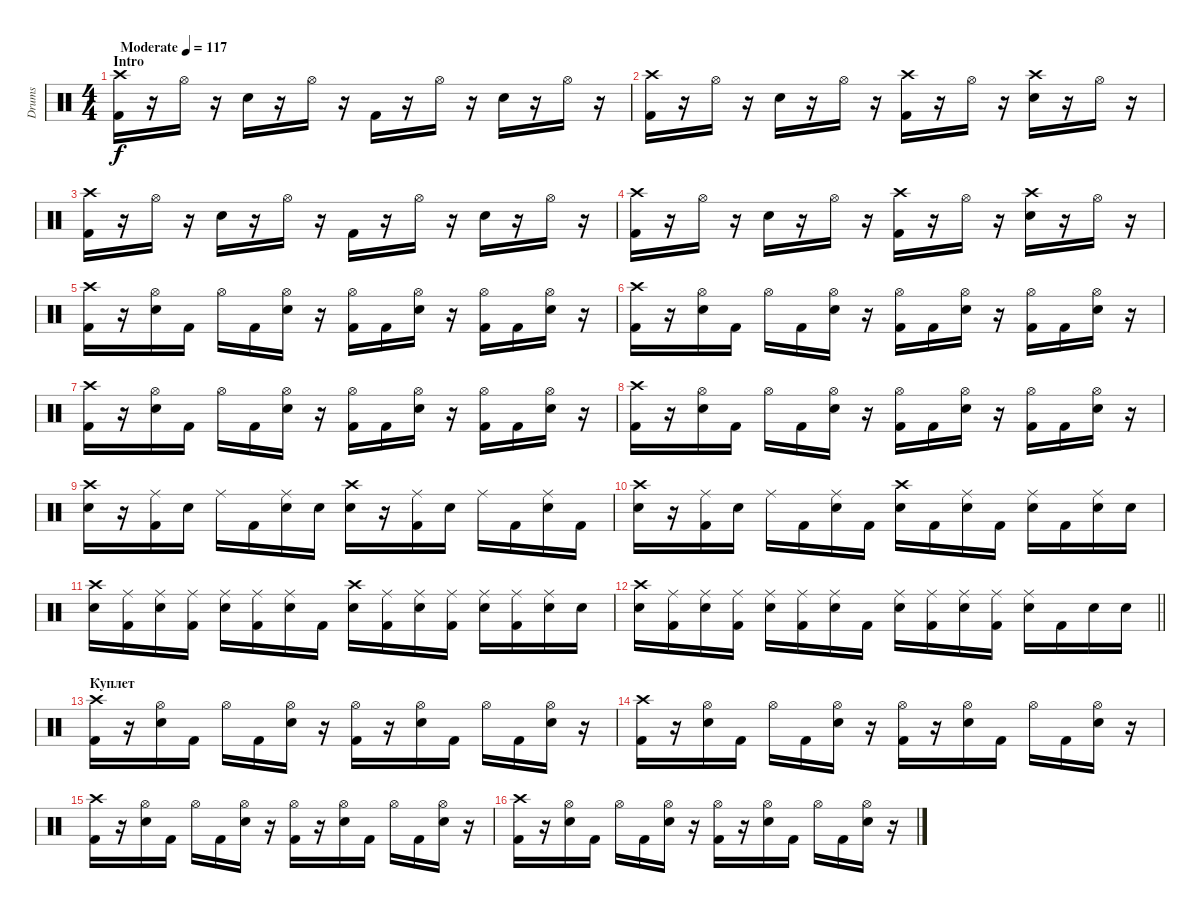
\track ("Drums" "Drums") {instrument percussion}
\staff {score}
\articulation defaults
\ts (4 4)
\section ("" "Intro")
\tempo (117 "Moderate")
\clef neutral
\ks c
("Kick (hit) 2" "Crash high (hit)").16{dy f} r.16 "Hi-Hat (open)".16 r.16 "Snare (hit) 2".16 r.16 "Hi-Hat (open)".16 r.16 "Kick (hit) 2".16 r.16 "Hi-Hat (open)".16 r.16 "Snare (hit) 2".16 r.16 "Hi-Hat (open)".16 r.16 |
("Kick (hit) 2" "Crash high (hit)").16 r.16 "Hi-Hat (open)".16 r.16 "Snare (hit) 2".16 r.16 "Hi-Hat (open)".16 r.16 ("Kick (hit) 2" "Crash high (hit)").16 r.16 "Hi-Hat (open)".16 r.16 ("Snare (hit) 2" "Crash high (hit)").16 r.16 "Hi-Hat (open)".16 r.16 |
("Kick (hit) 2" "Crash high (hit)").16 r.16 "Hi-Hat (open)".16 r.16 "Snare (hit) 2".16 r.16 "Hi-Hat (open)".16 r.16 "Kick (hit) 2".16 r.16 "Hi-Hat (open)".16 r.16 "Snare (hit) 2".16 r.16 "Hi-Hat (open)".16 r.16 |
("Kick (hit) 2" "Crash high (hit)").16 r.16 "Hi-Hat (open)".16 r.16 "Snare (hit) 2".16 r.16 "Hi-Hat (open)".16 r.16 ("Kick (hit) 2" "Crash high (hit)").16 r.16 "Hi-Hat (open)".16 r.16 ("Snare (hit) 2" "Crash high (hit)").16 r.16 "Hi-Hat (open)".16 r.16 |
("Kick (hit) 2" "Crash high (hit)").16 r.16 ("Snare (hit) 2" "Hi-Hat (open)").16 "Kick (hit) 2".16 "Hi-Hat (open)".16 "Kick (hit) 2".16 ("Snare (hit) 2" "Hi-Hat (open)").16 r.16 ("Kick (hit) 2" "Hi-Hat (open)").16 "Kick (hit) 2".16 ("Snare (hit) 2" "Hi-Hat (open)").16 r.16 ("Kick (hit) 2" "Hi-Hat (open)").16 "Kick (hit) 2".16 ("Snare (hit) 2" "Hi-Hat (open)").16 r.16 |
("Kick (hit) 2" "Crash high (hit)").16 r.16 ("Snare (hit) 2" "Hi-Hat (open)").16 "Kick (hit) 2".16 "Hi-Hat (open)".16 "Kick (hit) 2".16 ("Snare (hit) 2" "Hi-Hat (open)").16 r.16 ("Kick (hit) 2" "Hi-Hat (open)").16 "Kick (hit) 2".16 ("Snare (hit) 2" "Hi-Hat (open)").16 r.16 ("Kick (hit) 2" "Hi-Hat (open)").16 "Kick (hit) 2".16 ("Snare (hit) 2" "Hi-Hat (open)").16 r.16 |
("Kick (hit) 2" "Crash high (hit)").16 r.16 ("Snare (hit) 2" "Hi-Hat (open)").16 "Kick (hit) 2".16 "Hi-Hat (open)".16 "Kick (hit) 2".16 ("Snare (hit) 2" "Hi-Hat (open)").16 r.16 ("Kick (hit) 2" "Hi-Hat (open)").16 "Kick (hit) 2".16 ("Snare (hit) 2" "Hi-Hat (open)").16 r.16 ("Kick (hit) 2" "Hi-Hat (open)").16 "Kick (hit) 2".16 ("Snare (hit) 2" "Hi-Hat (open)").16 r.16 |
("Kick (hit) 2" "Crash high (hit)").16 r.16 ("Snare (hit) 2" "Hi-Hat (open)").16 "Kick (hit) 2".16 "Hi-Hat (open)".16 "Kick (hit) 2".16 ("Snare (hit) 2" "Hi-Hat (open)").16 r.16 ("Kick (hit) 2" "Hi-Hat (open)").16 "Kick (hit) 2".16 ("Snare (hit) 2" "Hi-Hat (open)").16 r.16 ("Kick (hit) 2" "Hi-Hat (open)").16 "Kick (hit) 2".16 ("Snare (hit) 2" "Hi-Hat (open)").16 r.16 |
("Snare (hit) 2" "Crash high (hit)").16 r.16 ("Kick (hit) 2" "Ride (middle)").16 "Snare (hit) 2".16 "Ride (middle)".16 "Kick (hit) 2".16 ("Snare (hit) 2" "Ride (middle)").16 "Snare (hit) 2".16 ("Snare (hit) 2" "Crash high (hit)").16 r.16 ("Kick (hit) 2" "Ride (middle)").16 "Snare (hit) 2".16 "Ride (middle)".16 "Kick (hit) 2".16 ("Snare (hit) 2" "Ride (middle)").16 "Kick (hit) 2".16 |
("Snare (hit) 2" "Crash high (hit)").16 r.16 ("Kick (hit) 2" "Ride (middle)").16 "Snare (hit) 2".16 "Ride (middle)".16 "Kick (hit) 2".16 ("Snare (hit) 2" "Ride (middle)").16 "Kick (hit) 2".16 ("Snare (hit) 2" "Crash high (hit)").16 "Kick (hit) 2".16 ("Snare (hit) 2" "Ride (middle)").16 "Kick (hit) 2".16 ("Snare (hit) 2" "Ride (middle)").16 "Kick (hit) 2".16 ("Snare (hit) 2" "Ride (middle)").16 "Snare (hit) 2".16 |
("Snare (hit) 2" "Crash high (hit)").16 ("Kick (hit) 2" "Ride (middle)").16 ("Snare (hit) 2" "Ride (middle)").16 ("Kick (hit) 2" "Ride (middle)").16 ("Snare (hit) 2" "Ride (middle)").16 ("Kick (hit) 2" "Ride (middle)").16 ("Snare (hit) 2" "Ride (middle)").16 "Kick (hit) 2".16 ("Snare (hit) 2" "Crash high (hit)").16 ("Kick (hit) 2" "Ride (middle)").16 ("Snare (hit) 2" "Ride (middle)").16 ("Kick (hit) 2" "Ride (middle)").16 ("Snare (hit) 2" "Ride (middle)").16 ("Kick (hit) 2" "Ride (middle)").16 ("Snare (hit) 2" "Ride (middle)").16 "Snare (hit) 2".16 |
\barLineRight lightlight
("Crash high (hit)" "Snare (hit) 2").16 ("Ride (middle)" "Kick (hit) 2").16 ("Ride (middle)" "Snare (hit) 2").16 ("Ride (middle)" "Kick (hit) 2").16 ("Ride (middle)" "Snare (hit) 2").16 ("Ride (middle)" "Kick (hit) 2").16 ("Ride (middle)" "Snare (hit) 2").16 "Kick (hit) 2".16 ("Ride (middle)" "Snare (hit) 2").16 ("Ride (middle)" "Kick (hit) 2").16 ("Ride (middle)" "Snare (hit) 2").16 ("Ride (middle)" "Kick (hit) 2").16 ("Ride (middle)" "Snare (hit) 2").16 "Kick (hit) 2".16 "Snare (hit) 2".16 "Snare (hit) 2".16 |
\section ("" "Куплет")
("Kick (hit) 2" "Crash high (hit)").16 r.16 ("Snare (hit) 2" "Hi-Hat (open)").16 "Kick (hit) 2".16 "Hi-Hat (open)".16 "Kick (hit) 2".16 ("Snare (hit) 2" "Hi-Hat (open)").16 r.16 ("Kick (hit) 2" "Hi-Hat (open)").16 r.16 ("Snare (hit) 2" "Hi-Hat (open)").16 "Kick (hit) 2".16 "Hi-Hat (open)".16 "Kick (hit) 2".16 ("Snare (hit) 2" "Hi-Hat (open)").16 r.16 |
("Kick (hit) 2" "Crash high (hit)").16 r.16 ("Snare (hit) 2" "Hi-Hat (open)").16 "Kick (hit) 2".16 "Hi-Hat (open)".16 "Kick (hit) 2".16 ("Snare (hit) 2" "Hi-Hat (open)").16 r.16 ("Kick (hit) 2" "Hi-Hat (open)").16 r.16 ("Snare (hit) 2" "Hi-Hat (open)").16 "Kick (hit) 2".16 "Hi-Hat (open)".16 "Kick (hit) 2".16 ("Snare (hit) 2" "Hi-Hat (open)").16 r.16 |
("Kick (hit) 2" "Crash high (hit)").16 r.16 ("Snare (hit) 2" "Hi-Hat (open)").16 "Kick (hit) 2".16 "Hi-Hat (open)".16 "Kick (hit) 2".16 ("Snare (hit) 2" "Hi-Hat (open)").16 r.16 ("Kick (hit) 2" "Hi-Hat (open)").16 r.16 ("Snare (hit) 2" "Hi-Hat (open)").16 "Kick (hit) 2".16 "Hi-Hat (open)".16 "Kick (hit) 2".16 ("Snare (hit) 2" "Hi-Hat (open)").16 r.16 |
("Kick (hit) 2" "Crash high (hit)").16 r.16 ("Snare (hit) 2" "Hi-Hat (open)").16 "Kick (hit) 2".16 "Hi-Hat (open)".16 "Kick (hit) 2".16 ("Snare (hit) 2" "Hi-Hat (open)").16 r.16 ("Kick (hit) 2" "Hi-Hat (open)").16 r.16 ("Snare (hit) 2" "Hi-Hat (open)").16 "Kick (hit) 2".16 "Hi-Hat (open)".16 "Kick (hit) 2".16 ("Snare (hit) 2" "Hi-Hat (open)").16 r.16
